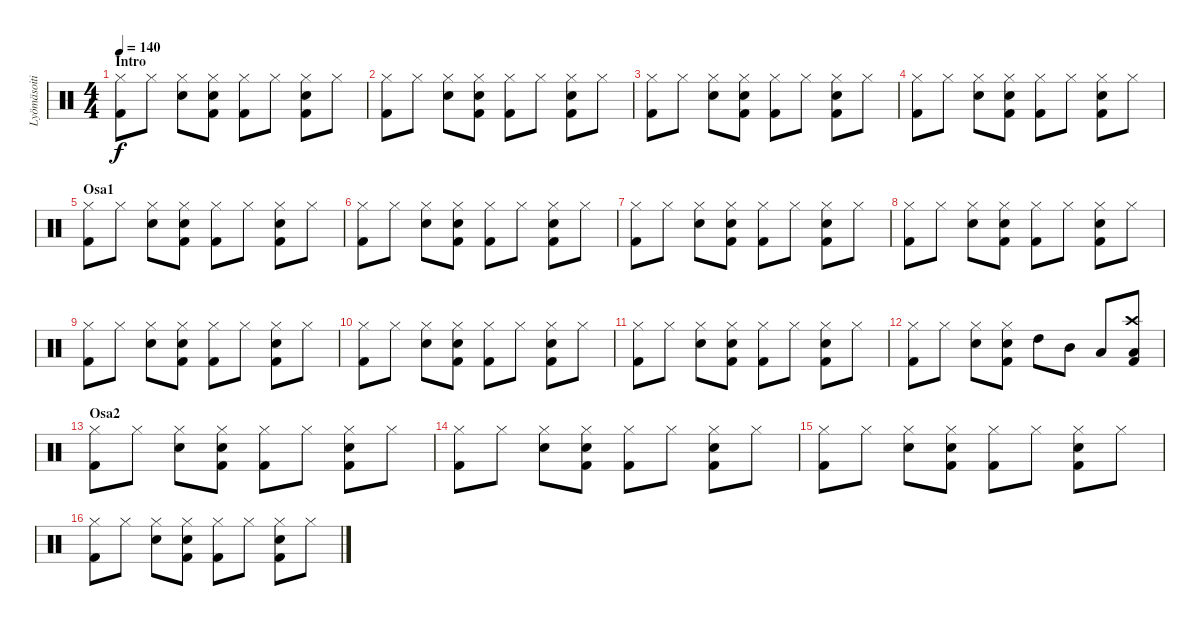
\track ("Lyömäsoitin" "Lyömäsoiti") {instrument percussion}
\staff {score}
\articulation defaults
\ts (4 4)
\section ("" "Intro")
\tempo 140
\clef neutral
\ks c
("Hi-Hat (closed)" "Kick (hit) 2").8{dy f} "Hi-Hat (closed)".8 ("Hi-Hat (closed)" "Snare (hit) 2").8 ("Hi-Hat (closed)" "Snare (hit) 2" "Kick (hit) 2").8 ("Hi-Hat (closed)" "Kick (hit) 2").8 "Hi-Hat (closed)".8 ("Hi-Hat (closed)" "Snare (hit) 2" "Kick (hit) 2").8 "Hi-Hat (closed)".8 |
("Hi-Hat (closed)" "Kick (hit) 2").8 "Hi-Hat (closed)".8 ("Hi-Hat (closed)" "Snare (hit) 2").8 ("Hi-Hat (closed)" "Snare (hit) 2" "Kick (hit) 2").8 ("Hi-Hat (closed)" "Kick (hit) 2").8 "Hi-Hat (closed)".8 ("Hi-Hat (closed)" "Snare (hit) 2" "Kick (hit) 2").8 "Hi-Hat (closed)".8 |
("Hi-Hat (closed)" "Kick (hit) 2").8 "Hi-Hat (closed)".8 ("Hi-Hat (closed)" "Snare (hit) 2").8 ("Hi-Hat (closed)" "Snare (hit) 2" "Kick (hit) 2").8 ("Hi-Hat (closed)" "Kick (hit) 2").8 "Hi-Hat (closed)".8 ("Hi-Hat (closed)" "Snare (hit) 2" "Kick (hit) 2").8 "Hi-Hat (closed)".8 |
("Hi-Hat (closed)" "Kick (hit) 2").8 "Hi-Hat (closed)".8 ("Hi-Hat (closed)" "Snare (hit) 2").8 ("Hi-Hat (closed)" "Snare (hit) 2" "Kick (hit) 2").8 ("Hi-Hat (closed)" "Kick (hit) 2").8 "Hi-Hat (closed)".8 ("Hi-Hat (closed)" "Snare (hit) 2" "Kick (hit) 2").8 "Hi-Hat (closed)".8 |
\section ("" "Osa1")
("Hi-Hat (closed)" "Kick (hit) 2").8 "Hi-Hat (closed)".8 ("Hi-Hat (closed)" "Snare (hit) 2").8 ("Hi-Hat (closed)" "Snare (hit) 2" "Kick (hit) 2").8 ("Hi-Hat (closed)" "Kick (hit) 2").8 "Hi-Hat (closed)".8 ("Hi-Hat (closed)" "Snare (hit) 2" "Kick (hit) 2").8 "Hi-Hat (closed)".8 |
("Hi-Hat (closed)" "Kick (hit) 2").8 "Hi-Hat (closed)".8 ("Hi-Hat (closed)" "Snare (hit) 2").8 ("Hi-Hat (closed)" "Snare (hit) 2" "Kick (hit) 2").8 ("Hi-Hat (closed)" "Kick (hit) 2").8 "Hi-Hat (closed)".8 ("Hi-Hat (closed)" "Snare (hit) 2" "Kick (hit) 2").8 "Hi-Hat (closed)".8 |
("Hi-Hat (closed)" "Kick (hit) 2").8 "Hi-Hat (closed)".8 ("Hi-Hat (closed)" "Snare (hit) 2").8 ("Hi-Hat (closed)" "Snare (hit) 2" "Kick (hit) 2").8 ("Hi-Hat (closed)" "Kick (hit) 2").8 "Hi-Hat (closed)".8 ("Hi-Hat (closed)" "Snare (hit) 2" "Kick (hit) 2").8 "Hi-Hat (closed)".8 |
("Hi-Hat (closed)" "Kick (hit) 2").8 "Hi-Hat (closed)".8 ("Hi-Hat (closed)" "Snare (hit) 2").8 ("Hi-Hat (closed)" "Snare (hit) 2" "Kick (hit) 2").8 ("Hi-Hat (closed)" "Kick (hit) 2").8 "Hi-Hat (closed)".8 ("Hi-Hat (closed)" "Snare (hit) 2" "Kick (hit) 2").8 "Hi-Hat (closed)".8 |
("Hi-Hat (closed)" "Kick (hit) 2").8 "Hi-Hat (closed)".8 ("Hi-Hat (closed)" "Snare (hit) 2").8 ("Hi-Hat (closed)" "Snare (hit) 2" "Kick (hit) 2").8 ("Hi-Hat (closed)" "Kick (hit) 2").8 "Hi-Hat (closed)".8 ("Hi-Hat (closed)" "Snare (hit) 2" "Kick (hit) 2").8 "Hi-Hat (closed)".8 |
("Hi-Hat (closed)" "Kick (hit) 2").8 "Hi-Hat (closed)".8 ("Hi-Hat (closed)" "Snare (hit) 2").8 ("Hi-Hat (closed)" "Snare (hit) 2" "Kick (hit) 2").8 ("Hi-Hat (closed)" "Kick (hit) 2").8 "Hi-Hat (closed)".8 ("Hi-Hat (closed)" "Snare (hit) 2" "Kick (hit) 2").8 "Hi-Hat (closed)".8 |
("Hi-Hat (closed)" "Kick (hit) 2").8 "Hi-Hat (closed)".8 ("Hi-Hat (closed)" "Snare (hit) 2").8 ("Hi-Hat (closed)" "Snare (hit) 2" "Kick (hit) 2").8 ("Hi-Hat (closed)" "Kick (hit) 2").8 "Hi-Hat (closed)".8 ("Hi-Hat (closed)" "Snare (hit) 2" "Kick (hit) 2").8 "Hi-Hat (closed)".8 |
("Hi-Hat (closed)" "Kick (hit) 2").8 "Hi-Hat (closed)".8 ("Hi-Hat (closed)" "Snare (hit) 2").8 ("Hi-Hat (closed)" "Snare (hit) 2" "Kick (hit) 2").8 "High Tom (hit)".8 "Mid Tom (hit)".8 "Low Tom (hit)".8 ("Crash high (hit)" "Low Floor Tom (hit)" "Kick (hit) 2").8 |
\section ("" "Osa2")
("Hi-Hat (closed)" "Kick (hit) 2").8 "Hi-Hat (closed)".8 ("Hi-Hat (closed)" "Snare (hit) 2").8 ("Hi-Hat (closed)" "Snare (hit) 2" "Kick (hit) 2").8 ("Hi-Hat (closed)" "Kick (hit) 2").8 "Hi-Hat (closed)".8 ("Hi-Hat (closed)" "Snare (hit) 2" "Kick (hit) 2").8 "Hi-Hat (closed)".8 |
("Hi-Hat (closed)" "Kick (hit) 2").8 "Hi-Hat (closed)".8 ("Hi-Hat (closed)" "Snare (hit) 2").8 ("Hi-Hat (closed)" "Snare (hit) 2" "Kick (hit) 2").8 ("Hi-Hat (closed)" "Kick (hit) 2").8 "Hi-Hat (closed)".8 ("Hi-Hat (closed)" "Snare (hit) 2" "Kick (hit) 2").8 "Hi-Hat (closed)".8 |
("Hi-Hat (closed)" "Kick (hit) 2").8 "Hi-Hat (closed)".8 ("Hi-Hat (closed)" "Snare (hit) 2").8 ("Hi-Hat (closed)" "Snare (hit) 2" "Kick (hit) 2").8 ("Hi-Hat (closed)" "Kick (hit) 2").8 "Hi-Hat (closed)".8 ("Hi-Hat (closed)" "Snare (hit) 2" "Kick (hit) 2").8 "Hi-Hat (closed)".8 |
("Hi-Hat (closed)" "Kick (hit) 2").8 "Hi-Hat (closed)".8 ("Hi-Hat (closed)" "Snare (hit) 2").8 ("Hi-Hat (closed)" "Snare (hit) 2" "Kick (hit) 2").8 ("Hi-Hat (closed)" "Kick (hit) 2").8 "Hi-Hat (closed)".8 ("Hi-Hat (closed)" "Snare (hit) 2" "Kick (hit) 2").8 "Hi-Hat (closed)".8
